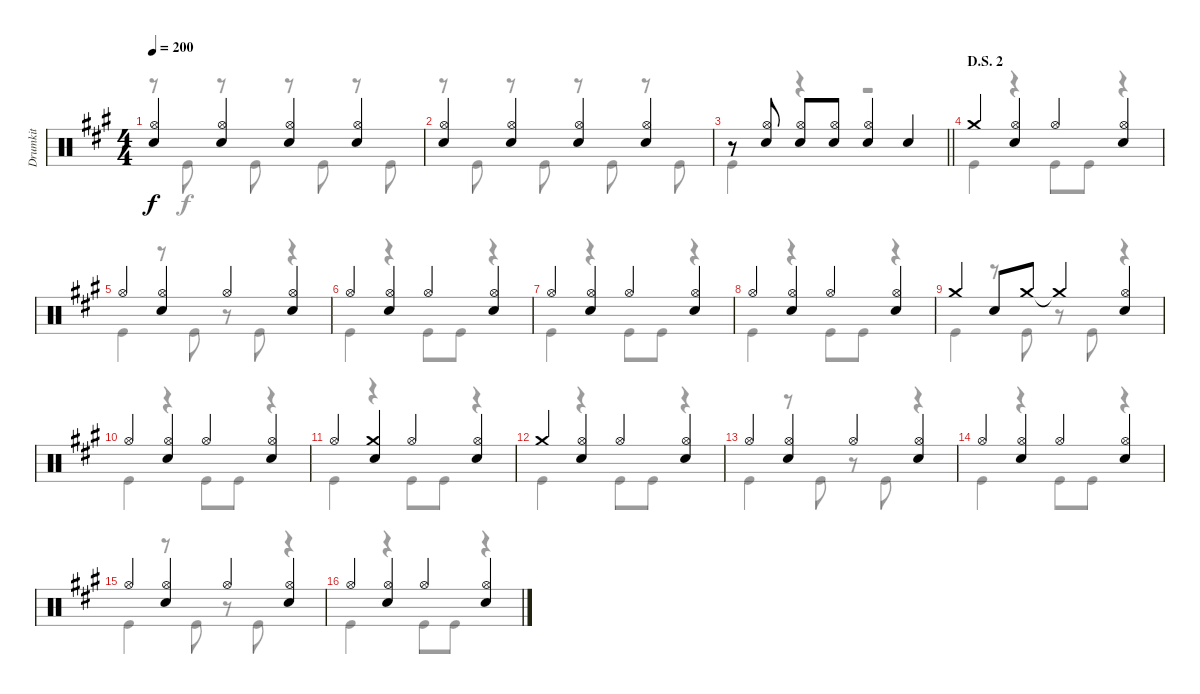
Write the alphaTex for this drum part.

\track ("Drumkit" "Drumkit") {instrument percussion}
\staff {score}
\articulation defaults
\voice
\ts (4 4)
\tempo 200
\clef neutral
\ks a
("Snare (hit) 2" "Hi-Hat (open)").4{dy f} ("Snare (hit) 2" "Hi-Hat (open)").4 ("Snare (hit) 2" "Hi-Hat (open)").4 ("Snare (hit) 2" "Hi-Hat (open)").4 |
("Snare (hit) 2" "Hi-Hat (open)").4 ("Snare (hit) 2" "Hi-Hat (open)").4 ("Snare (hit) 2" "Hi-Hat (open)").4 ("Snare (hit) 2" "Hi-Hat (open)").4 |
\barLineRight lightlight
r.8 ("Hi-Hat (open)" "Snare (hit) 2").8 ("Hi-Hat (open)" "Snare (hit) 2").8 ("Hi-Hat (open)" "Snare (hit) 2").8 ("Hi-Hat (open)" "Snare (hit) 2").4 "Snare (hit) 2".4 |
\section ("" "D.S. 2")
"Crash medium (hit)".4 ("Hi-Hat (open)" "Snare (hit) 2").4 "Hi-Hat (open)".4 ("Hi-Hat (open)" "Snare (hit) 2").4 |
"Hi-Hat (open)".4 ("Hi-Hat (open)" "Snare (hit) 2").4 "Hi-Hat (open)".4 ("Hi-Hat (open)" "Snare (hit) 2").4 |
"Hi-Hat (open)".4 ("Hi-Hat (open)" "Snare (hit) 2").4 "Hi-Hat (open)".4 ("Hi-Hat (open)" "Snare (hit) 2").4 |
"Hi-Hat (open)".4 ("Hi-Hat (open)" "Snare (hit) 2").4 "Hi-Hat (open)".4 ("Hi-Hat (open)" "Snare (hit) 2").4 |
"Hi-Hat (open)".4 ("Hi-Hat (open)" "Snare (hit) 2").4 "Hi-Hat (open)".4 ("Hi-Hat (open)" "Snare (hit) 2").4 |
"Crash medium (hit)".4 "Snare (hit) 2".8 "Crash medium (hit)".8 "Crash medium (hit)"{t}.4 ("Hi-Hat (open)" "Snare (hit) 2").4 |
"Hi-Hat (open)".4 ("Hi-Hat (open)" "Snare (hit) 2").4 "Hi-Hat (open)".4 ("Hi-Hat (open)" "Snare (hit) 2").4 |
"Hi-Hat (open)".4 ("Snare (hit) 2" "Crash medium (hit)").4 "Hi-Hat (open)".4 ("Hi-Hat (open)" "Snare (hit) 2").4 |
"Crash medium (hit)".4 ("Hi-Hat (open)" "Snare (hit) 2").4 "Hi-Hat (open)".4 ("Hi-Hat (open)" "Snare (hit) 2").4 |
"Hi-Hat (open)".4 ("Hi-Hat (open)" "Snare (hit) 2").4 "Hi-Hat (open)".4 ("Hi-Hat (open)" "Snare (hit) 2").4 |
"Hi-Hat (open)".4 ("Hi-Hat (open)" "Snare (hit) 2").4 "Hi-Hat (open)".4 ("Hi-Hat (open)" "Snare (hit) 2").4 |
"Hi-Hat (open)".4 ("Hi-Hat (open)" "Snare (hit) 2").4 "Hi-Hat (open)".4 ("Hi-Hat (open)" "Snare (hit) 2").4 |
"Hi-Hat (open)".4 ("Hi-Hat (open)" "Snare (hit) 2").4 "Hi-Hat (open)".4 ("Hi-Hat (open)" "Snare (hit) 2").4
\voice
\clef neutral
\ottava regular
\simile none
\ks a
r.8{dy f} "Kick (hit)".8 r.8 "Kick (hit)".8 r.8 "Kick (hit)".8 r.8 "Kick (hit)".8 |
r.8 "Kick (hit)".8 r.8 "Kick (hit)".8 r.8 "Kick (hit)".8 r.8 "Kick (hit)".8 |
\barLineRight lightlight "Kick (hit)".4
r.4 r.2 |
"Kick (hit)".4 r.4 "Kick (hit)".8 "Kick (hit)".8 r.4 |
"Kick (hit)".4 r.8 "Kick (hit)".8 r.8 "Kick (hit)".8 r.4 |
"Kick (hit)".4 r.4 "Kick (hit)".8 "Kick (hit)".8 r.4 |
"Kick (hit)".4 r.4 "Kick (hit)".8 "Kick (hit)".8 r.4 |
"Kick (hit)".4 r.4 "Kick (hit)".8 "Kick (hit)".8 r.4 |
"Kick (hit)".4 r.8 "Kick (hit)".8 r.8 "Kick (hit)".8 r.4 |
"Kick (hit)".4 r.4 "Kick (hit)".8 "Kick (hit)".8 r.4 |
"Kick (hit)".4 r.4 "Kick (hit)".8 "Kick (hit)".8 r.4 |
"Kick (hit)".4 r.4 "Kick (hit)".8 "Kick (hit)".8 r.4 |
"Kick (hit)".4 r.8 "Kick (hit)".8 r.8 "Kick (hit)".8 r.4 |
"Kick (hit)".4 r.4 "Kick (hit)".8 "Kick (hit)".8 r.4 |
"Kick (hit)".4 r.8 "Kick (hit)".8 r.8 "Kick (hit)".8 r.4 |
"Kick (hit)".4 r.4 "Kick (hit)".8 "Kick (hit)".8 r.4
